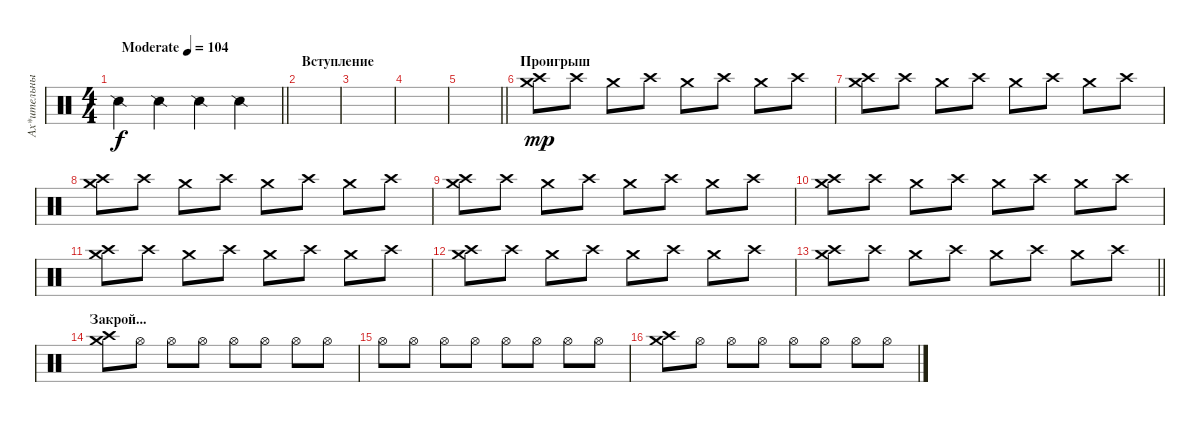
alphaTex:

\track ("Ах*ительный барабанщик" "Ах*ительны") {instrument percussion}
\staff {score}
\articulation defaults
\ts (4 4)
\tempo (104 "Moderate")
\clef neutral
\barLineRight lightlight
\ks c "Snare (side stick) 2".4{dy f} "Snare (side stick) 2".4 "Snare (side stick) 2".4 "Snare (side stick) 2".4
|
\section ("" "Вступление")
|
|
|
\barLineRight lightlight
|
\section ("" "Проигрыш")
("Crash medium (hit)" "Crash high (hit)").8{dy mp} "Crash high (hit)".8 "Crash medium (hit)".8 "Crash high (hit)".8 "Crash medium (hit)".8 "Crash high (hit)".8 "Crash medium (hit)".8 "Crash high (hit)".8 |
("Crash medium (hit)" "Crash high (hit)").8 "Crash high (hit)".8 "Crash medium (hit)".8 "Crash high (hit)".8 "Crash medium (hit)".8 "Crash high (hit)".8 "Crash medium (hit)".8 "Crash high (hit)".8 |
("Crash medium (hit)" "Crash high (hit)").8 "Crash high (hit)".8 "Crash medium (hit)".8 "Crash high (hit)".8 "Crash medium (hit)".8 "Crash high (hit)".8 "Crash medium (hit)".8 "Crash high (hit)".8 |
("Crash medium (hit)" "Crash high (hit)").8 "Crash high (hit)".8 "Crash medium (hit)".8 "Crash high (hit)".8 "Crash medium (hit)".8 "Crash high (hit)".8 "Crash medium (hit)".8 "Crash high (hit)".8 |
("Crash medium (hit)" "Crash high (hit)").8 "Crash high (hit)".8 "Crash medium (hit)".8 "Crash high (hit)".8 "Crash medium (hit)".8 "Crash high (hit)".8 "Crash medium (hit)".8 "Crash high (hit)".8 |
("Crash medium (hit)" "Crash high (hit)").8 "Crash high (hit)".8 "Crash medium (hit)".8 "Crash high (hit)".8 "Crash medium (hit)".8 "Crash high (hit)".8 "Crash medium (hit)".8 "Crash high (hit)".8 |
("Crash medium (hit)" "Crash high (hit)").8 "Crash high (hit)".8 "Crash medium (hit)".8 "Crash high (hit)".8 "Crash medium (hit)".8 "Crash high (hit)".8 "Crash medium (hit)".8 "Crash high (hit)".8 |
\barLineRight lightlight
("Crash medium (hit)" "Crash high (hit)").8 "Crash high (hit)".8 "Crash medium (hit)".8 "Crash high (hit)".8 "Crash medium (hit)".8 "Crash high (hit)".8 "Crash medium (hit)".8 "Crash high (hit)".8 |
\section ("" "Закрой...")
("Crash medium (hit)" "Crash high (hit)").8 "Hi-Hat (open)".8 "Hi-Hat (open)".8 "Hi-Hat (open)".8 "Hi-Hat (open)".8 "Hi-Hat (open)".8 "Hi-Hat (open)".8 "Hi-Hat (open)".8 |
"Hi-Hat (open)".8 "Hi-Hat (open)".8 "Hi-Hat (open)".8 "Hi-Hat (open)".8 "Hi-Hat (open)".8 "Hi-Hat (open)".8 "Hi-Hat (open)".8 "Hi-Hat (open)".8 |
("Crash medium (hit)" "Crash high (hit)").8 "Hi-Hat (open)".8 "Hi-Hat (open)".8 "Hi-Hat (open)".8 "Hi-Hat (open)".8 "Hi-Hat (open)".8 "Hi-Hat (open)".8 "Hi-Hat (open)".8
